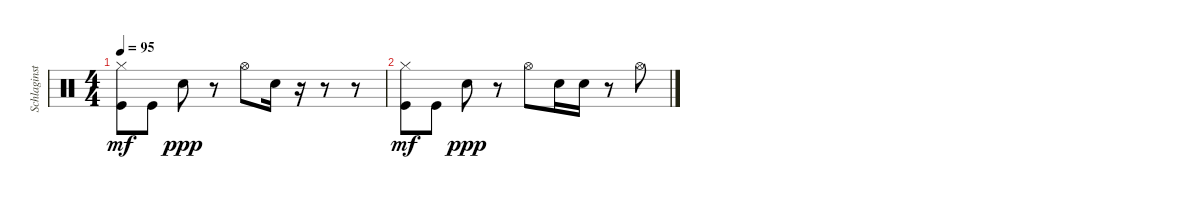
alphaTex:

\track ("Schlaginstrumente - Auswahl" "Schlaginst") {instrument percussion}
\staff {score}
\articulation defaults
\ts (4 4)
\tempo 95
\clef neutral
\ks c
("Hi-Hat (closed)" "Kick (hit)").8{dy mf} "Kick (hit)".8 "Snare (hit) 2".8{dy ppp} r.8 "Hi-Hat (open)".8 "Snare (hit) 2".16 r.16 r.8 r.8 |
("Hi-Hat (closed)" "Kick (hit)").8{dy mf} "Kick (hit)".8 "Snare (hit) 2".8{dy ppp} r.8 "Hi-Hat (open)".8 "Snare (hit) 2".16 "Snare (hit) 2".16 r.8 "Hi-Hat (open)".8
